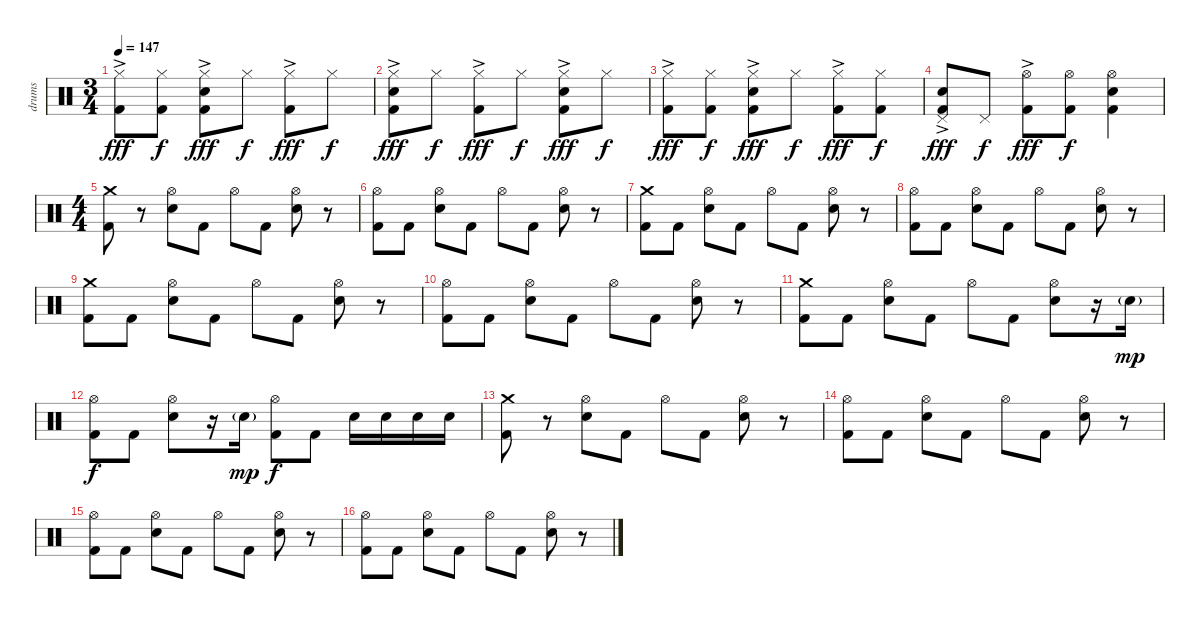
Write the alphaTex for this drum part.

\track ("drums" "drums") {instrument percussion}
\staff {score}
\articulation defaults
\ts (3 4)
\tempo 147
\clef neutral
\ks c
("Hi-Hat (closed)"{ac} "Kick (hit) 2").8{dy fff} ("Hi-Hat (closed)" "Kick (hit) 2").8{dy f} ("Hi-Hat (closed)"{ac} "Snare (hit) 2" "Kick (hit) 2").8{dy fff} "Hi-Hat (closed)".8{dy f} ("Hi-Hat (closed)"{ac} "Kick (hit) 2").8{dy fff} "Hi-Hat (closed)".8{dy f} |
("Hi-Hat (closed)"{ac} "Snare (hit) 2" "Kick (hit) 2").8{dy fff} "Hi-Hat (closed)".8{dy f} ("Hi-Hat (closed)"{ac} "Kick (hit) 2").8{dy fff} "Hi-Hat (closed)".8{dy f} ("Hi-Hat (closed)"{ac} "Snare (hit) 2" "Kick (hit) 2").8{dy fff} "Hi-Hat (closed)".8{dy f} |
("Hi-Hat (closed)"{ac} "Kick (hit) 2").8{dy fff} ("Hi-Hat (closed)" "Kick (hit) 2").8{dy f} ("Hi-Hat (closed)"{ac} "Snare (hit) 2" "Kick (hit) 2").8{dy fff} "Hi-Hat (closed)".8{dy f} ("Hi-Hat (closed)"{ac} "Kick (hit) 2").8{dy fff} ("Hi-Hat (closed)" "Kick (hit) 2").8{dy f} |
("Pedal Hi-Hat (hit)"{ac} "Snare (hit) 2" "Kick (hit) 2").8{dy fff} "Pedal Hi-Hat (hit)".8{dy f} ("Hi-Hat (open)"{ac} "Kick (hit) 2").8{dy fff} ("Hi-Hat (open)" "Kick (hit) 2").8{dy f} ("Hi-Hat (open)" "Snare (hit) 2" "Kick (hit) 2").4 |
\ts (4 4)
("Crash medium (hit)" "Kick (hit) 2").8 r.8 ("Hi-Hat (open)" "Snare (hit) 2").8 "Kick (hit) 2".8 "Hi-Hat (open)".8 "Kick (hit) 2".8 ("Hi-Hat (open)" "Snare (hit) 2").8 r.8 |
("Hi-Hat (open)" "Kick (hit) 2").8 "Kick (hit) 2".8 ("Hi-Hat (open)" "Snare (hit) 2").8 "Kick (hit) 2".8 "Hi-Hat (open)".8 "Kick (hit) 2".8 ("Hi-Hat (open)" "Snare (hit) 2").8 r.8 |
("Crash medium (hit)" "Kick (hit) 2").8 "Kick (hit) 2".8 ("Hi-Hat (open)" "Snare (hit) 2").8 "Kick (hit) 2".8 "Hi-Hat (open)".8 "Kick (hit) 2".8 ("Hi-Hat (open)" "Snare (hit) 2").8 r.8 |
("Hi-Hat (open)" "Kick (hit) 2").8 "Kick (hit) 2".8 ("Hi-Hat (open)" "Snare (hit) 2").8 "Kick (hit) 2".8 "Hi-Hat (open)".8 "Kick (hit) 2".8 ("Hi-Hat (open)" "Snare (hit) 2").8 r.8 |
("Crash medium (hit)" "Kick (hit) 2").8 "Kick (hit) 2".8 ("Hi-Hat (open)" "Snare (hit) 2").8 "Kick (hit) 2".8 "Hi-Hat (open)".8 "Kick (hit) 2".8 ("Hi-Hat (open)" "Snare (hit) 2").8 r.8 |
("Hi-Hat (open)" "Kick (hit) 2").8 "Kick (hit) 2".8 ("Hi-Hat (open)" "Snare (hit) 2").8 "Kick (hit) 2".8 "Hi-Hat (open)".8 "Kick (hit) 2".8 ("Hi-Hat (open)" "Snare (hit) 2").8 r.8 |
("Crash medium (hit)" "Kick (hit) 2").8 "Kick (hit) 2".8 ("Hi-Hat (open)" "Snare (hit) 2").8 "Kick (hit) 2".8 "Hi-Hat (open)".8 "Kick (hit) 2".8 ("Hi-Hat (open)" "Snare (hit) 2").8 r.16 "Snare (hit) 2"{g}.16{dy mp} |
("Hi-Hat (open)" "Kick (hit) 2").8{dy f} "Kick (hit) 2".8 ("Hi-Hat (open)" "Snare (hit) 2").8 r.16 "Snare (hit) 2"{g}.16{dy mp} ("Hi-Hat (open)" "Kick (hit) 2").8{dy f} "Kick (hit) 2".8 "Snare (hit) 2".16 "Snare (hit) 2".16 "Snare (hit) 2".16 "Snare (hit) 2".16 |
("Crash medium (hit)" "Kick (hit) 2").8 r.8 ("Hi-Hat (open)" "Snare (hit) 2").8 "Kick (hit) 2".8 "Hi-Hat (open)".8 "Kick (hit) 2".8 ("Hi-Hat (open)" "Snare (hit) 2").8 r.8 |
("Hi-Hat (open)" "Kick (hit) 2").8 "Kick (hit) 2".8 ("Hi-Hat (open)" "Snare (hit) 2").8 "Kick (hit) 2".8 "Hi-Hat (open)".8 "Kick (hit) 2".8 ("Hi-Hat (open)" "Snare (hit) 2").8 r.8 |
("Hi-Hat (open)" "Kick (hit) 2").8 "Kick (hit) 2".8 ("Hi-Hat (open)" "Snare (hit) 2").8 "Kick (hit) 2".8 "Hi-Hat (open)".8 "Kick (hit) 2".8 ("Hi-Hat (open)" "Snare (hit) 2").8 r.8 |
("Hi-Hat (open)" "Kick (hit) 2").8 "Kick (hit) 2".8 ("Hi-Hat (open)" "Snare (hit) 2").8 "Kick (hit) 2".8 "Hi-Hat (open)".8 "Kick (hit) 2".8 ("Hi-Hat (open)" "Snare (hit) 2").8 r.8
